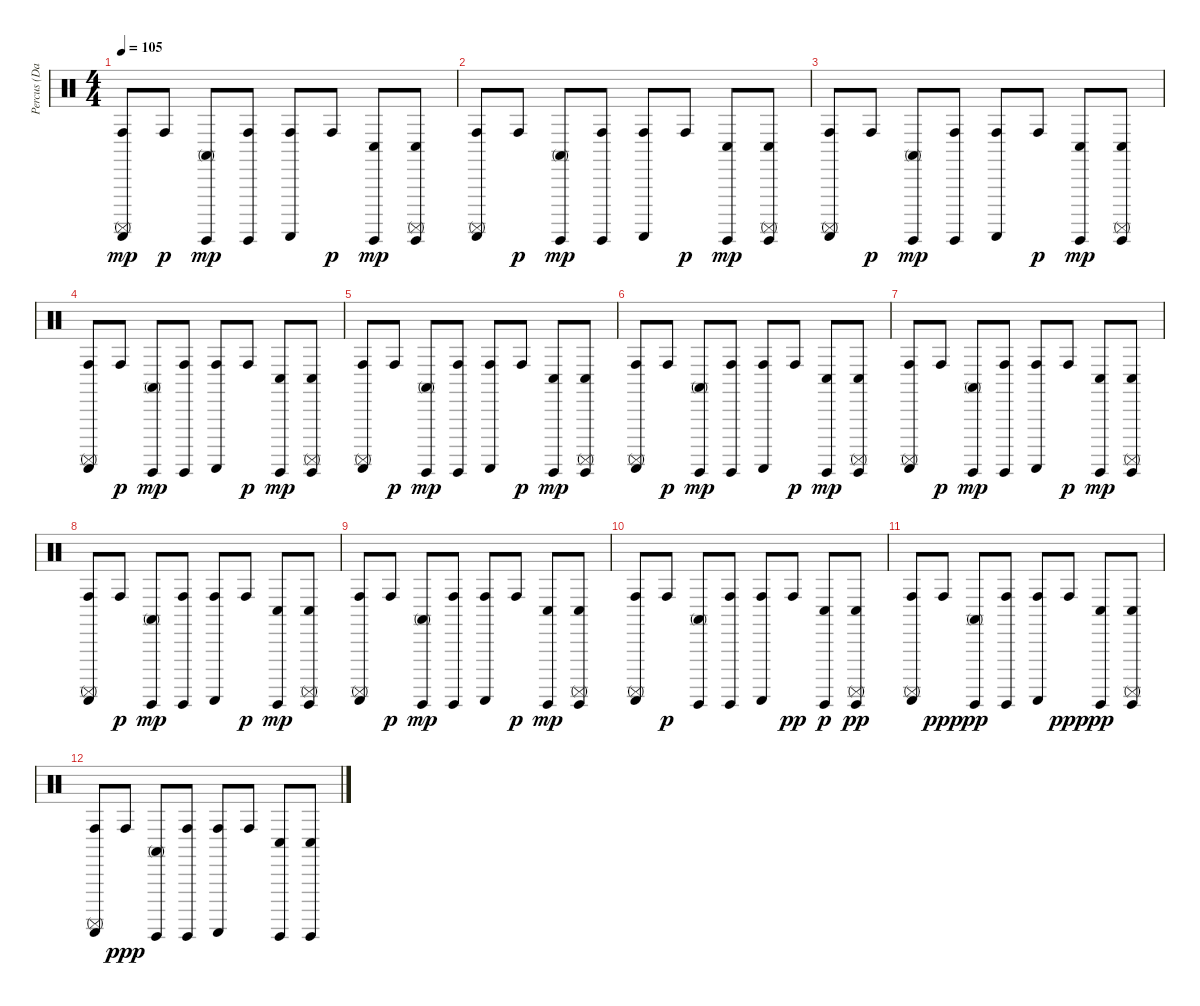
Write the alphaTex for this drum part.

\track ("Percus (Daniel+Mali)" "Percus (Da") {instrument percussion}
\staff {score}
\articulation defaults
\ts (4 4)
\tempo 105
\clef neutral
\ks c
("Conga high (hit)" "Guiro (scrap-return)" "Surdo (mute)").8{dy mp} "Conga high (hit)".8{dy p} ("Conga high (mute)" "Guiro (hit)").8{dy mp} ("Conga high (hit)" "Guiro (hit)").8 ("Conga high (hit)" "Guiro (scrap-return)").8 "Conga high (hit)".8{dy p} ("Conga low (hit)" "Guiro (hit)").8{dy mp} ("Conga low (hit)" "Guiro (hit)" "Surdo (mute)").8 |
("Conga high (hit)" "Guiro (scrap-return)" "Surdo (mute)").8 "Conga high (hit)".8{dy p} ("Conga high (mute)" "Guiro (hit)").8{dy mp} ("Conga high (hit)" "Guiro (hit)").8 ("Conga high (hit)" "Guiro (scrap-return)").8 "Conga high (hit)".8{dy p} ("Conga low (hit)" "Guiro (hit)").8{dy mp} ("Conga low (hit)" "Guiro (hit)" "Surdo (mute)").8 |
("Conga high (hit)" "Guiro (scrap-return)" "Surdo (mute)").8 "Conga high (hit)".8{dy p} ("Conga high (mute)" "Guiro (hit)").8{dy mp} ("Conga high (hit)" "Guiro (hit)").8 ("Conga high (hit)" "Guiro (scrap-return)").8 "Conga high (hit)".8{dy p} ("Conga low (hit)" "Guiro (hit)").8{dy mp} ("Conga low (hit)" "Guiro (hit)" "Surdo (mute)").8 |
("Conga high (hit)" "Guiro (scrap-return)" "Surdo (mute)").8 "Conga high (hit)".8{dy p} ("Conga high (mute)" "Guiro (hit)").8{dy mp} ("Conga high (hit)" "Guiro (hit)").8 ("Conga high (hit)" "Guiro (scrap-return)").8 "Conga high (hit)".8{dy p} ("Conga low (hit)" "Guiro (hit)").8{dy mp} ("Conga low (hit)" "Guiro (hit)" "Surdo (mute)").8 |
("Conga high (hit)" "Guiro (scrap-return)" "Surdo (mute)").8 "Conga high (hit)".8{dy p} ("Conga high (mute)" "Guiro (hit)").8{dy mp} ("Conga high (hit)" "Guiro (hit)").8 ("Conga high (hit)" "Guiro (scrap-return)").8 "Conga high (hit)".8{dy p} ("Conga low (hit)" "Guiro (hit)").8{dy mp} ("Conga low (hit)" "Guiro (hit)" "Surdo (mute)").8 |
("Conga high (hit)" "Guiro (scrap-return)" "Surdo (mute)").8 "Conga high (hit)".8{dy p} ("Conga high (mute)" "Guiro (hit)").8{dy mp} ("Conga high (hit)" "Guiro (hit)").8 ("Conga high (hit)" "Guiro (scrap-return)").8 "Conga high (hit)".8{dy p} ("Conga low (hit)" "Guiro (hit)").8{dy mp} ("Conga low (hit)" "Guiro (hit)" "Surdo (mute)").8 |
("Conga high (hit)" "Guiro (scrap-return)" "Surdo (mute)").8 "Conga high (hit)".8{dy p} ("Conga high (mute)" "Guiro (hit)").8{dy mp} ("Conga high (hit)" "Guiro (hit)").8 ("Conga high (hit)" "Guiro (scrap-return)").8 "Conga high (hit)".8{dy p} ("Conga low (hit)" "Guiro (hit)").8{dy mp} ("Conga low (hit)" "Guiro (hit)" "Surdo (mute)").8 |
("Conga high (hit)" "Guiro (scrap-return)" "Surdo (mute)").8 "Conga high (hit)".8{dy p} ("Conga high (mute)" "Guiro (hit)").8{dy mp} ("Conga high (hit)" "Guiro (hit)").8 ("Conga high (hit)" "Guiro (scrap-return)").8 "Conga high (hit)".8{dy p} ("Conga low (hit)" "Guiro (hit)").8{dy mp} ("Conga low (hit)" "Guiro (hit)" "Surdo (mute)").8 |
("Conga high (hit)" "Guiro (scrap-return)" "Surdo (mute)").8 "Conga high (hit)".8{dy p} ("Conga high (mute)" "Guiro (hit)").8{dy mp} ("Conga high (hit)" "Guiro (hit)").8 ("Conga high (hit)" "Guiro (scrap-return)").8 "Conga high (hit)".8{dy p} ("Conga low (hit)" "Guiro (hit)").8{dy mp} ("Conga low (hit)" "Guiro (hit)" "Surdo (mute)").8 |
("Conga high (hit)" "Guiro (scrap-return)" "Surdo (mute)").8 "Conga high (hit)".8{dy p} ("Conga high (mute)" "Guiro (hit)").8 ("Conga high (hit)" "Guiro (hit)").8 ("Conga high (hit)" "Guiro (scrap-return)").8 "Conga high (hit)".8{dy pp} ("Conga low (hit)" "Guiro (hit)").8{dy p} ("Conga low (hit)" "Guiro (hit)" "Surdo (mute)").8{dy pp} |
("Conga high (hit)" "Guiro (scrap-return)" "Surdo (mute)").8 "Conga high (hit)".8{dy ppp} ("Conga high (mute)" "Guiro (hit)").8{dy pp} ("Conga high (hit)" "Guiro (hit)").8 ("Conga high (hit)" "Guiro (scrap-return)").8 "Conga high (hit)".8{dy ppp} ("Conga low (hit)" "Guiro (hit)").8{dy pp} ("Conga low (hit)" "Guiro (hit)" "Surdo (mute)").8 |
("Conga high (hit)" "Guiro (scrap-return)" "Surdo (mute)").8 "Conga high (hit)".8{dy ppp} ("Conga high (mute)" "Guiro (hit)").8 ("Conga high (hit)" "Guiro (hit)").8 ("Conga high (hit)" "Guiro (scrap-return)").8 "Conga high (hit)".8 ("Conga low (hit)" "Guiro (hit)").8 ("Conga low (hit)" "Guiro (hit)").8
